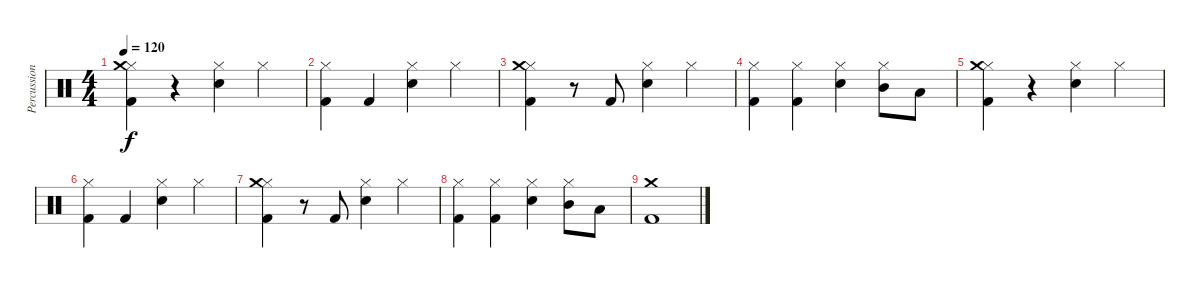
\track ("Percussions" "Percussion") {instrument percussion}
\staff {score}
\articulation defaults
\ts (4 4)
\tempo 120
\clef neutral
\ks c
("Hi-Hat (closed)" "Crash medium (hit)" "Kick (hit) 2").4{dy f} r.4 ("Hi-Hat (closed)" "Electric Snare (hit)").4 "Hi-Hat (closed)".4 |
("Hi-Hat (closed)" "Kick (hit) 2").4 "Kick (hit) 2".4 ("Hi-Hat (closed)" "Electric Snare (hit)").4 "Hi-Hat (closed)".4 |
("Hi-Hat (closed)" "Crash medium (hit)" "Kick (hit) 2").4 r.8 "Kick (hit) 2".8 ("Hi-Hat (closed)" "Electric Snare (hit)").4 "Hi-Hat (closed)".4 |
("Hi-Hat (closed)" "Kick (hit) 2").4 ("Hi-Hat (closed)" "Kick (hit) 2").4 ("Hi-Hat (closed)" "Electric Snare (hit)").4 ("Hi-Hat (closed)" "Mid Tom (hit)").8 "Low Tom (hit)".8 |
("Hi-Hat (closed)" "Crash medium (hit)" "Kick (hit) 2").4 r.4 ("Hi-Hat (closed)" "Electric Snare (hit)").4 "Hi-Hat (closed)".4 |
("Hi-Hat (closed)" "Kick (hit) 2").4 "Kick (hit) 2".4 ("Hi-Hat (closed)" "Electric Snare (hit)").4 "Hi-Hat (closed)".4 |
("Hi-Hat (closed)" "Crash medium (hit)" "Kick (hit) 2").4 r.8 "Kick (hit) 2".8 ("Hi-Hat (closed)" "Electric Snare (hit)").4 "Hi-Hat (closed)".4 |
("Hi-Hat (closed)" "Kick (hit) 2").4 ("Hi-Hat (closed)" "Kick (hit) 2").4 ("Hi-Hat (closed)" "Electric Snare (hit)").4 ("Hi-Hat (closed)" "Mid Tom (hit)").8 "Low Tom (hit)".8 |
("Crash medium (hit)" "Kick (hit) 2").1
